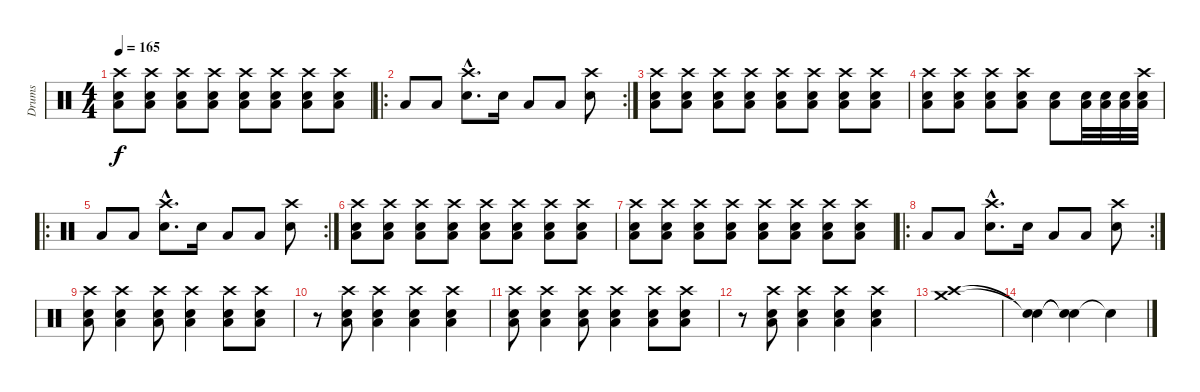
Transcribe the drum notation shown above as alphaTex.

\track ("Drums" "Drums") {instrument percussion}
\staff {score}
\articulation defaults
\ts (4 4)
\tempo 165
\clef neutral
\ks c
("Crash high (hit)" "Low Floor Tom (hit)" "Electric Snare (hit)").8{dy f} ("Crash high (hit)" "Low Floor Tom (hit)" "Electric Snare (hit)").8 ("Crash high (hit)" "Low Floor Tom (hit)" "Electric Snare (hit)").8 ("Crash high (hit)" "Low Floor Tom (hit)" "Electric Snare (hit)").8 ("Crash high (hit)" "Low Floor Tom (hit)" "Electric Snare (hit)").8 ("Crash high (hit)" "Low Floor Tom (hit)" "Electric Snare (hit)").8 ("Crash high (hit)" "Low Floor Tom (hit)" "Electric Snare (hit)").8 ("Crash high (hit)" "Low Floor Tom (hit)" "Electric Snare (hit)").8 |
\ro
\rc 2 "Low Tom (hit)".8 "Low Tom (hit)".8
("Electric Snare (hit)"{hac} "Crash high (hit)"{hac}).8{d} "Electric Snare (hit)".16 "Low Tom (hit)".8 "Low Tom (hit)".8 ("Electric Snare (hit)" "Crash high (hit)").8 |
("Crash high (hit)" "Low Floor Tom (hit)" "Electric Snare (hit)").8 ("Crash high (hit)" "Low Floor Tom (hit)" "Electric Snare (hit)").8 ("Crash high (hit)" "Low Floor Tom (hit)" "Electric Snare (hit)").8 ("Crash high (hit)" "Low Floor Tom (hit)" "Electric Snare (hit)").8 ("Crash high (hit)" "Low Floor Tom (hit)" "Electric Snare (hit)").8 ("Crash high (hit)" "Low Floor Tom (hit)" "Electric Snare (hit)").8 ("Crash high (hit)" "Low Floor Tom (hit)" "Electric Snare (hit)").8 ("Crash high (hit)" "Low Floor Tom (hit)" "Electric Snare (hit)").8 |
("Crash high (hit)" "Low Floor Tom (hit)" "Electric Snare (hit)").8 ("Crash high (hit)" "Low Floor Tom (hit)" "Electric Snare (hit)").8 ("Crash high (hit)" "Low Floor Tom (hit)" "Electric Snare (hit)").8 ("Crash high (hit)" "Low Floor Tom (hit)" "Electric Snare (hit)").8 ("Low Floor Tom (hit)" "Electric Snare (hit)").8 ("Low Floor Tom (hit)" "Electric Snare (hit)").32 ("Low Floor Tom (hit)" "Electric Snare (hit)").32 ("Low Floor Tom (hit)" "Electric Snare (hit)").32 ("Crash high (hit)" "Low Floor Tom (hit)" "Electric Snare (hit)").32 |
\ro
\rc 2 "Low Tom (hit)".8 "Low Tom (hit)".8
("Electric Snare (hit)"{hac} "Crash high (hit)"{hac}).8{d} "Electric Snare (hit)".16 "Low Tom (hit)".8 "Low Tom (hit)".8 ("Electric Snare (hit)" "Crash high (hit)").8 |
("Crash high (hit)" "Low Floor Tom (hit)" "Electric Snare (hit)").8 ("Crash high (hit)" "Low Floor Tom (hit)" "Electric Snare (hit)").8 ("Crash high (hit)" "Low Floor Tom (hit)" "Electric Snare (hit)").8 ("Crash high (hit)" "Low Floor Tom (hit)" "Electric Snare (hit)").8 ("Crash high (hit)" "Low Floor Tom (hit)" "Electric Snare (hit)").8 ("Crash high (hit)" "Low Floor Tom (hit)" "Electric Snare (hit)").8 ("Crash high (hit)" "Low Floor Tom (hit)" "Electric Snare (hit)").8 ("Crash high (hit)" "Low Floor Tom (hit)" "Electric Snare (hit)").8 |
("Crash high (hit)" "Low Floor Tom (hit)" "Electric Snare (hit)").8 ("Crash high (hit)" "Low Floor Tom (hit)" "Electric Snare (hit)").8 ("Crash high (hit)" "Low Floor Tom (hit)" "Electric Snare (hit)").8 ("Crash high (hit)" "Low Floor Tom (hit)" "Electric Snare (hit)").8 ("Crash high (hit)" "Low Floor Tom (hit)" "Electric Snare (hit)").8 ("Crash high (hit)" "Low Floor Tom (hit)" "Electric Snare (hit)").8 ("Crash high (hit)" "Low Floor Tom (hit)" "Electric Snare (hit)").8 ("Crash high (hit)" "Low Floor Tom (hit)" "Electric Snare (hit)").8 |
\ro
\rc 2 "Low Tom (hit)".8 "Low Tom (hit)".8
("Electric Snare (hit)"{hac} "Crash high (hit)"{hac}).8{d} "Electric Snare (hit)".16 "Low Tom (hit)".8 "Low Tom (hit)".8 ("Electric Snare (hit)" "Crash high (hit)").8 |
("Crash high (hit)" "Low Floor Tom (hit)" "Electric Snare (hit)").8 ("Crash high (hit)" "Low Floor Tom (hit)" "Electric Snare (hit)").4 ("Crash high (hit)" "Low Floor Tom (hit)" "Electric Snare (hit)").8 ("Crash high (hit)" "Low Floor Tom (hit)" "Electric Snare (hit)").4 ("Crash high (hit)" "Low Floor Tom (hit)" "Electric Snare (hit)").8 ("Crash high (hit)" "Low Floor Tom (hit)" "Electric Snare (hit)").8 |
r.8 ("Crash high (hit)" "Low Floor Tom (hit)" "Electric Snare (hit)").8 ("Crash high (hit)" "Low Floor Tom (hit)" "Electric Snare (hit)").4 ("Crash high (hit)" "Low Floor Tom (hit)" "Electric Snare (hit)").4 ("Crash high (hit)" "Low Floor Tom (hit)" "Electric Snare (hit)").4 |
("Crash high (hit)" "Low Floor Tom (hit)" "Electric Snare (hit)").8 ("Crash high (hit)" "Low Floor Tom (hit)" "Electric Snare (hit)").4 ("Crash high (hit)" "Low Floor Tom (hit)" "Electric Snare (hit)").8 ("Crash high (hit)" "Low Floor Tom (hit)" "Electric Snare (hit)").4 ("Crash high (hit)" "Low Floor Tom (hit)" "Electric Snare (hit)").8 ("Crash high (hit)" "Low Floor Tom (hit)" "Electric Snare (hit)").8 |
r.8 ("Crash high (hit)" "Low Floor Tom (hit)" "Electric Snare (hit)").8 ("Crash high (hit)" "Low Floor Tom (hit)" "Electric Snare (hit)").4 ("Crash high (hit)" "Low Floor Tom (hit)" "Electric Snare (hit)").4 ("Crash high (hit)" "Low Floor Tom (hit)" "Electric Snare (hit)").4 |
("Crash medium (hit)" "Crash high (hit)").1 |
("Snare (hit)"{t} "Snare (hit)"{t}).4 ("Snare (hit)"{t} "Snare (hit)"{t}).4 "Snare (hit)"{t}.4
